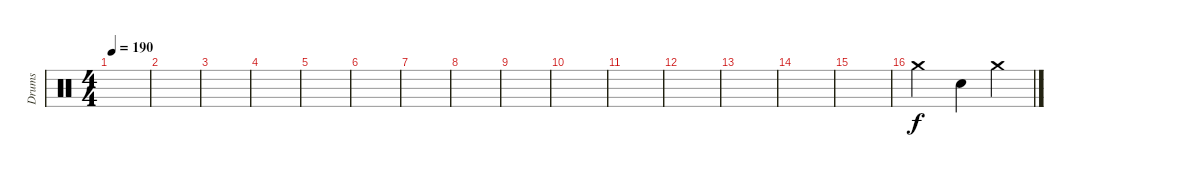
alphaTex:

\track ("Drums" "Drums") {instrument percussion}
\staff {score}
\articulation defaults
\ts (4 4)
\tempo 190
\clef neutral
\ks c
|
|
|
|
|
|
|
|
|
|
|
|
|
|
|
"Crash medium (hit)".2 "Snare (hit) 2".4 "Crash medium (hit)".4
